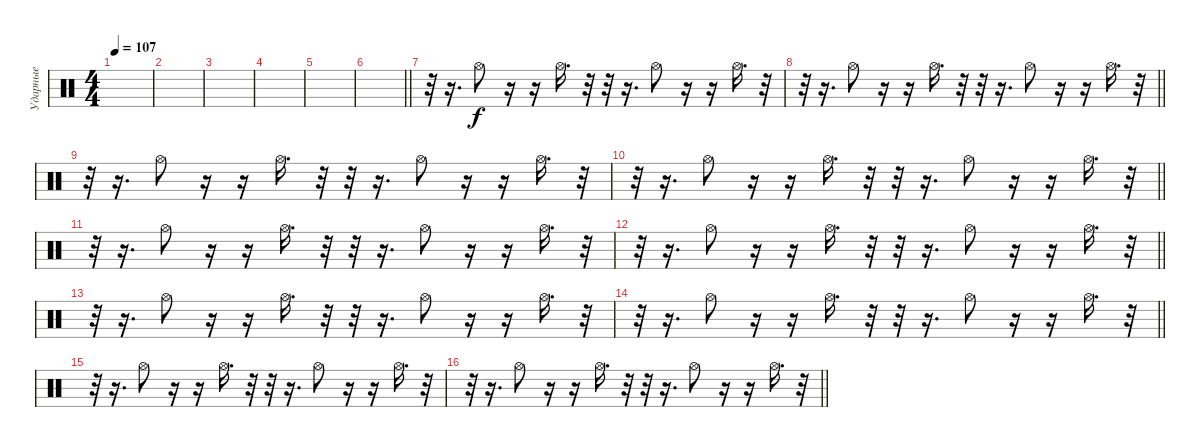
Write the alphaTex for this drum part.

\track ("Ударные" "Ударные") {solo instrument percussion}
\staff {score}
\articulation defaults
\ts (4 4)
\tempo 107
\clef neutral
\ks c
|
|
|
|
|
\barLineRight lightlight
|
r.32 r.16{d} "Hi-Hat (open)".8 r.16 r.16 "Hi-Hat (open)".16{d} r.32 r.32 r.16{d} "Hi-Hat (open)".8 r.16 r.16 "Hi-Hat (open)".16{d} r.32 |
\barLineRight lightlight
r.32 r.16{d} "Hi-Hat (open)".8 r.16 r.16 "Hi-Hat (open)".16{d} r.32 r.32 r.16{d} "Hi-Hat (open)".8 r.16 r.16 "Hi-Hat (open)".16{d} r.32 |
r.32 r.16{d} "Hi-Hat (open)".8 r.16 r.16 "Hi-Hat (open)".16{d} r.32 r.32 r.16{d} "Hi-Hat (open)".8 r.16 r.16 "Hi-Hat (open)".16{d} r.32 |
\barLineRight lightlight
r.32 r.16{d} "Hi-Hat (open)".8 r.16 r.16 "Hi-Hat (open)".16{d} r.32 r.32 r.16{d} "Hi-Hat (open)".8 r.16 r.16 "Hi-Hat (open)".16{d} r.32 |
r.32 r.16{d} "Hi-Hat (open)".8 r.16 r.16 "Hi-Hat (open)".16{d} r.32 r.32 r.16{d} "Hi-Hat (open)".8 r.16 r.16 "Hi-Hat (open)".16{d} r.32 |
\barLineRight lightlight
r.32 r.16{d} "Hi-Hat (open)".8 r.16 r.16 "Hi-Hat (open)".16{d} r.32 r.32 r.16{d} "Hi-Hat (open)".8 r.16 r.16 "Hi-Hat (open)".16{d} r.32 |
r.32 r.16{d} "Hi-Hat (open)".8 r.16 r.16 "Hi-Hat (open)".16{d} r.32 r.32 r.16{d} "Hi-Hat (open)".8 r.16 r.16 "Hi-Hat (open)".16{d} r.32 |
\barLineRight lightlight
r.32 r.16{d} "Hi-Hat (open)".8 r.16 r.16 "Hi-Hat (open)".16{d} r.32 r.32 r.16{d} "Hi-Hat (open)".8 r.16 r.16 "Hi-Hat (open)".16{d} r.32 |
r.32 r.16{d} "Hi-Hat (open)".8 r.16 r.16 "Hi-Hat (open)".16{d} r.32 r.32 r.16{d} "Hi-Hat (open)".8 r.16 r.16 "Hi-Hat (open)".16{d} r.32 |
\barLineRight lightlight
r.32 r.16{d} "Hi-Hat (open)".8 r.16 r.16 "Hi-Hat (open)".16{d} r.32 r.32 r.16{d} "Hi-Hat (open)".8 r.16 r.16 "Hi-Hat (open)".16{d} r.32
